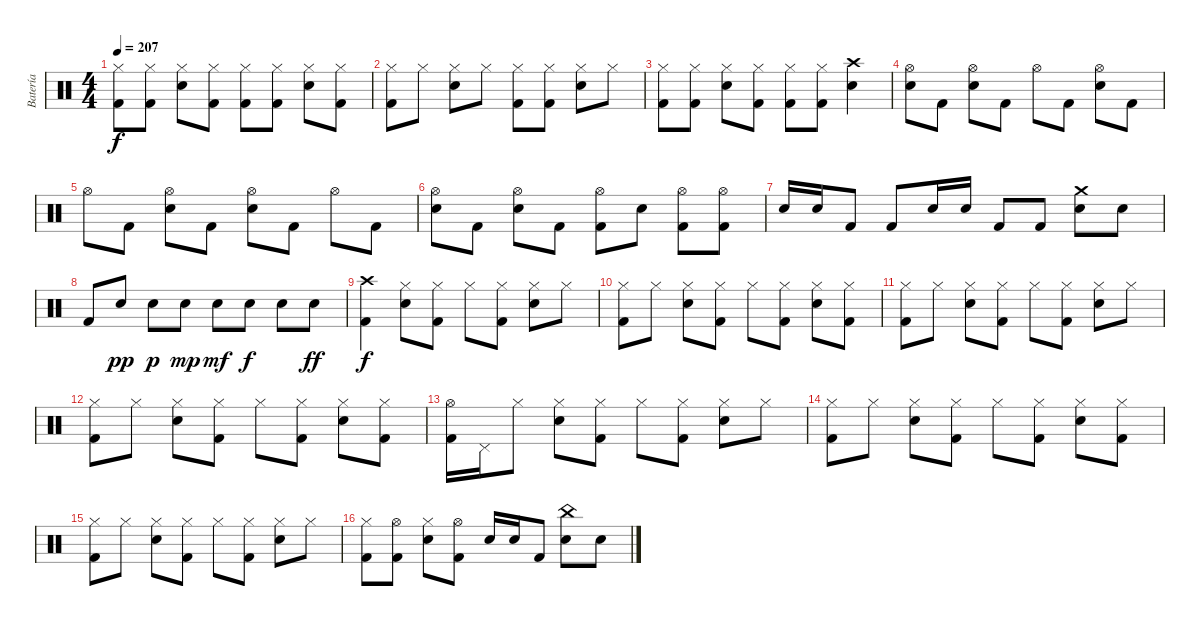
\track ("Batería" "Batería") {instrument percussion}
\staff {score}
\articulation defaults
\ts (4 4)
\tempo 207
\clef neutral
\ks c
("Hi-Hat (closed)" "Kick (hit) 2").8{dy f} ("Hi-Hat (closed)" "Kick (hit) 2").8 ("Snare (hit) 2" "Hi-Hat (closed)").8 ("Hi-Hat (closed)" "Kick (hit) 2").8 ("Hi-Hat (closed)" "Kick (hit) 2").8 ("Hi-Hat (closed)" "Kick (hit) 2").8 ("Snare (hit) 2" "Hi-Hat (closed)").8 ("Hi-Hat (closed)" "Kick (hit) 2").8 |
("Hi-Hat (closed)" "Kick (hit) 2").8 "Hi-Hat (closed)".8 ("Snare (hit) 2" "Hi-Hat (closed)").8 "Hi-Hat (closed)".8 ("Hi-Hat (closed)" "Kick (hit) 2").8 ("Hi-Hat (closed)" "Kick (hit) 2").8 ("Snare (hit) 2" "Hi-Hat (closed)").8 "Hi-Hat (closed)".8 |
("Hi-Hat (closed)" "Kick (hit) 2").8 ("Hi-Hat (closed)" "Kick (hit) 2").8 ("Snare (hit) 2" "Hi-Hat (closed)").8 ("Hi-Hat (closed)" "Kick (hit) 2").8 ("Hi-Hat (closed)" "Kick (hit) 2").8 ("Hi-Hat (closed)" "Kick (hit) 2").8 ("Crash high (hit)" "Snare (hit) 2").4 |
("Snare (hit) 2" "Hi-Hat (open)").8 "Kick (hit) 2".8 ("Snare (hit) 2" "Hi-Hat (open)").8 "Kick (hit) 2".8 "Hi-Hat (open)".8 "Kick (hit) 2".8 ("Snare (hit) 2" "Hi-Hat (open)").8 "Kick (hit) 2".8 |
"Hi-Hat (open)".8 "Kick (hit) 2".8 ("Snare (hit) 2" "Hi-Hat (open)").8 "Kick (hit) 2".8 ("Snare (hit) 2" "Hi-Hat (open)").8 "Kick (hit) 2".8 "Hi-Hat (open)".8 "Kick (hit) 2".8 |
("Snare (hit) 2" "Hi-Hat (open)").8 "Kick (hit) 2".8 ("Snare (hit) 2" "Hi-Hat (open)").8 "Kick (hit) 2".8 ("Hi-Hat (open)" "Kick (hit) 2").8 "Snare (hit) 2".8 ("Hi-Hat (open)" "Kick (hit) 2").8 ("Hi-Hat (open)" "Kick (hit) 2").8 |
"Snare (hit) 2".16 "Snare (hit) 2".16 "Kick (hit) 2".8 "Kick (hit) 2".8 "Snare (hit) 2".16 "Snare (hit) 2".16 "Kick (hit) 2".8 "Kick (hit) 2".8 ("Crash medium (hit)" "Snare (hit) 2").8 "Snare (hit) 2".8 |
"Kick (hit) 2".8 "Snare (hit) 2".8{dy pp} "Snare (hit) 2".8{dy p} "Snare (hit) 2".8{dy mp} "Snare (hit) 2".8{dy mf} "Snare (hit) 2".8{dy f} "Snare (hit) 2".8 "Snare (hit) 2".8{dy ff} |
("Crash high (hit)" "Kick (hit) 2").4{dy f} ("Snare (hit) 2" "Hi-Hat (closed)").8 ("Hi-Hat (closed)" "Kick (hit) 2").8 "Hi-Hat (closed)".8 ("Hi-Hat (closed)" "Kick (hit) 2").8 ("Snare (hit) 2" "Hi-Hat (closed)").8 "Hi-Hat (closed)".8 |
("Hi-Hat (closed)" "Kick (hit) 2").8 "Hi-Hat (closed)".8 ("Snare (hit) 2" "Hi-Hat (closed)").8 ("Hi-Hat (closed)" "Kick (hit) 2").8 "Hi-Hat (closed)".8 ("Hi-Hat (closed)" "Kick (hit) 2").8 ("Snare (hit) 2" "Hi-Hat (closed)").8 ("Hi-Hat (closed)" "Kick (hit) 2").8 |
("Hi-Hat (closed)" "Kick (hit) 2").8 "Hi-Hat (closed)".8 ("Snare (hit) 2" "Hi-Hat (closed)").8 ("Hi-Hat (closed)" "Kick (hit) 2").8 "Hi-Hat (closed)".8 ("Hi-Hat (closed)" "Kick (hit) 2").8 ("Snare (hit) 2" "Hi-Hat (closed)").8 "Hi-Hat (closed)".8 |
("Hi-Hat (closed)" "Kick (hit) 2").8 "Hi-Hat (closed)".8 ("Snare (hit) 2" "Hi-Hat (closed)").8 ("Hi-Hat (closed)" "Kick (hit) 2").8 "Hi-Hat (closed)".8 ("Hi-Hat (closed)" "Kick (hit) 2").8 ("Snare (hit) 2" "Hi-Hat (closed)").8 ("Hi-Hat (closed)" "Kick (hit) 2").8 |
("Hi-Hat (open)" "Kick (hit) 2").16 "Pedal Hi-Hat (hit)".16 "Hi-Hat (closed)".8 ("Snare (hit) 2" "Hi-Hat (closed)").8 ("Hi-Hat (closed)" "Kick (hit) 2").8 "Hi-Hat (closed)".8 ("Hi-Hat (closed)" "Kick (hit) 2").8 ("Snare (hit) 2" "Hi-Hat (closed)").8 "Hi-Hat (closed)".8 |
("Hi-Hat (closed)" "Kick (hit) 2").8 "Hi-Hat (closed)".8 ("Snare (hit) 2" "Hi-Hat (closed)").8 ("Hi-Hat (closed)" "Kick (hit) 2").8 "Hi-Hat (closed)".8 ("Hi-Hat (closed)" "Kick (hit) 2").8 ("Snare (hit) 2" "Hi-Hat (closed)").8 ("Hi-Hat (closed)" "Kick (hit) 2").8 |
("Hi-Hat (closed)" "Kick (hit) 2").8 "Hi-Hat (closed)".8 ("Snare (hit) 2" "Hi-Hat (closed)").8 ("Hi-Hat (closed)" "Kick (hit) 2").8 "Hi-Hat (closed)".8 ("Hi-Hat (closed)" "Kick (hit) 2").8 ("Snare (hit) 2" "Hi-Hat (closed)").8 "Hi-Hat (closed)".8 |
("Hi-Hat (closed)" "Kick (hit) 2").8 ("Hi-Hat (open)" "Kick (hit) 2").8 ("Snare (hit) 2" "Hi-Hat (closed)").8 ("Hi-Hat (open)" "Kick (hit) 2").8 "Snare (hit) 2".16 "Snare (hit) 2".16 "Kick (hit) 2".8 ("China (hit)" "Snare (hit) 2").8 "Snare (hit) 2".8
